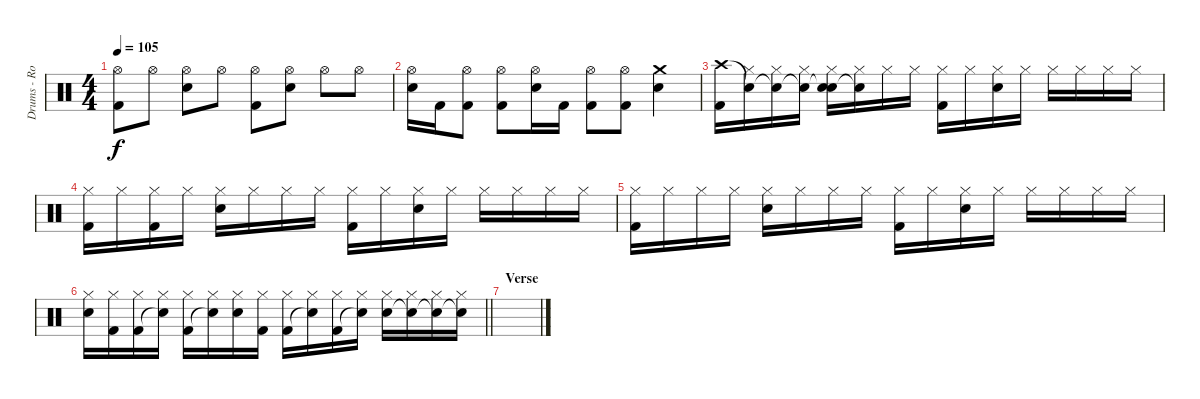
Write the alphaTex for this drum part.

\track ("Drums - Rob Bourdon" "Drums - Ro") {instrument percussion}
\staff {score}
\articulation defaults
\ts (4 4)
\tempo 105
\clef neutral
\ks c
("Hi-Hat (open)" "Kick (hit) 2").8{dy f} "Hi-Hat (open)".8 ("Hi-Hat (open)" "Snare (hit) 2").8 "Hi-Hat (open)".8 ("Hi-Hat (open)" "Kick (hit) 2").8 ("Hi-Hat (open)" "Snare (hit) 2").8 "Hi-Hat (open)".8 "Hi-Hat (open)".8 |
("Hi-Hat (open)" "Snare (hit) 2").16 "Kick (hit) 2".16 ("Hi-Hat (open)" "Kick (hit) 2").8 ("Hi-Hat (open)" "Kick (hit) 2").8 ("Hi-Hat (open)" "Snare (hit) 2").16 "Kick (hit) 2".16 ("Hi-Hat (open)" "Kick (hit) 2").8 ("Hi-Hat (open)" "Kick (hit) 2").8 ("Crash medium (hit)" "Snare (hit) 2").4 |
("Crash high (hit)" "Kick (hit) 2").16{volume 10} ("Snare (hit)"{t} "Hi-Hat (closed)").16 ("Snare (hit)"{t} "Hi-Hat (closed)").16 ("Snare (hit)"{t} "Hi-Hat (closed)").16 ("Snare (hit)"{t} "Hi-Hat (closed)" "Snare (hit) 2").16 ("Snare (hit)"{t} "Hi-Hat (closed)").16 "Hi-Hat (closed)".16 "Hi-Hat (closed)".16 ("Hi-Hat (closed)" "Kick (hit) 2").16 "Hi-Hat (closed)".16 ("Hi-Hat (closed)" "Snare (hit) 2").16 "Hi-Hat (closed)".16 "Hi-Hat (closed)".16 "Hi-Hat (closed)".16 "Hi-Hat (closed)".16 "Hi-Hat (closed)".16 |
("Hi-Hat (closed)" "Kick (hit) 2").16 "Hi-Hat (closed)".16 ("Hi-Hat (closed)" "Kick (hit) 2").16 "Hi-Hat (closed)".16 ("Hi-Hat (closed)" "Snare (hit) 2").16 "Hi-Hat (closed)".16 "Hi-Hat (closed)".16 "Hi-Hat (closed)".16 ("Hi-Hat (closed)" "Kick (hit) 2").16 "Hi-Hat (closed)".16 ("Hi-Hat (closed)" "Snare (hit) 2").16 "Hi-Hat (closed)".16 "Hi-Hat (closed)".16 "Hi-Hat (closed)".16 "Hi-Hat (closed)".16 "Hi-Hat (closed)".16 |
("Hi-Hat (closed)" "Kick (hit) 2").16 "Hi-Hat (closed)".16 "Hi-Hat (closed)".16 "Hi-Hat (closed)".16 ("Hi-Hat (closed)" "Snare (hit) 2").16 "Hi-Hat (closed)".16 "Hi-Hat (closed)".16 "Hi-Hat (closed)".16 ("Hi-Hat (closed)" "Kick (hit) 2").16 "Hi-Hat (closed)".16 ("Hi-Hat (closed)" "Snare (hit) 2").16 "Hi-Hat (closed)".16 "Hi-Hat (closed)".16 "Hi-Hat (closed)".16 "Hi-Hat (closed)".16 "Hi-Hat (closed)".16 |
\barLineRight lightlight
("Hi-Hat (closed)" "Snare (hit) 2").16 ("Hi-Hat (closed)" "Kick (hit) 2").16 ("Hi-Hat (closed)" "Kick (hit) 2").16 ("Hi-Hat (closed)" "Snare (hit)"{t}).16 ("Hi-Hat (closed)" "Kick (hit) 2").16 ("Hi-Hat (closed)" "Snare (hit)"{t}).16 ("Hi-Hat (closed)" "Snare (hit) 2").16 ("Hi-Hat (closed)" "Kick (hit) 2").16 ("Hi-Hat (closed)" "Kick (hit) 2").16 ("Hi-Hat (closed)" "Snare (hit)"{t}).16 ("Hi-Hat (closed)" "Kick (hit) 2").16 ("Hi-Hat (closed)" "Snare (hit)"{t}).16 ("Hi-Hat (closed)" "Snare (hit) 2").16 ("Hi-Hat (closed)" "Snare (hit)"{t}).16 ("Hi-Hat (closed)" "Snare (hit)"{t}).16 ("Hi-Hat (closed)" "Snare (hit)"{t}).16 |
\section ("" "Verse")
